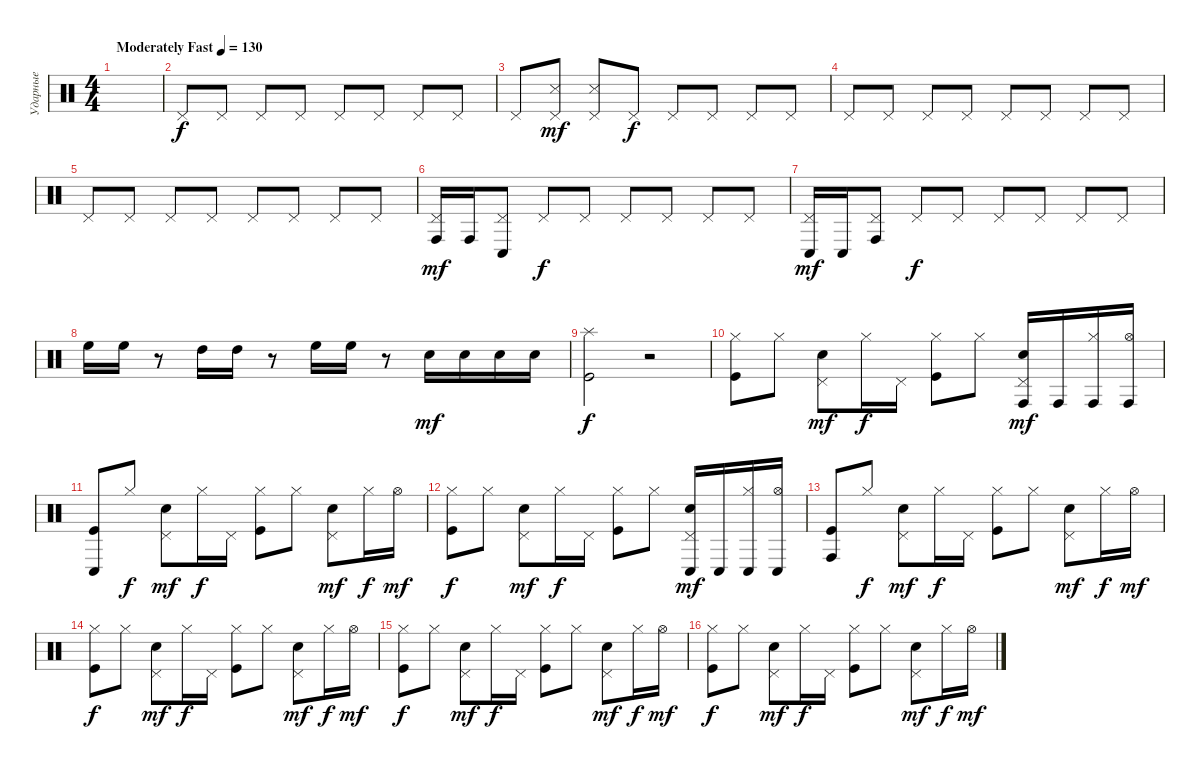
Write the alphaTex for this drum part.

\track ("Ударные" "Ударные") {instrument percussion}
\staff {score}
\articulation defaults
\ts (4 4)
\tempo (130 "Moderately Fast")
\clef neutral
\ks c
|
"Pedal Hi-Hat (hit)".8 "Pedal Hi-Hat (hit)".8 "Pedal Hi-Hat (hit)".8 "Pedal Hi-Hat (hit)".8 "Pedal Hi-Hat (hit)".8 "Pedal Hi-Hat (hit)".8 "Pedal Hi-Hat (hit)".8 "Pedal Hi-Hat (hit)".8 |
"Pedal Hi-Hat (hit)".8 ("Pedal Hi-Hat (hit)" "Snare (side stick) 3").8{dy mf} ("Pedal Hi-Hat (hit)" "Snare (side stick) 3").8 "Pedal Hi-Hat (hit)".8{dy f} "Pedal Hi-Hat (hit)".8 "Pedal Hi-Hat (hit)".8 "Pedal Hi-Hat (hit)".8 "Pedal Hi-Hat (hit)".8 |
"Pedal Hi-Hat (hit)".8 "Pedal Hi-Hat (hit)".8 "Pedal Hi-Hat (hit)".8 "Pedal Hi-Hat (hit)".8 "Pedal Hi-Hat (hit)".8 "Pedal Hi-Hat (hit)".8 "Pedal Hi-Hat (hit)".8 "Pedal Hi-Hat (hit)".8 |
"Pedal Hi-Hat (hit)".8 "Pedal Hi-Hat (hit)".8 "Pedal Hi-Hat (hit)".8 "Pedal Hi-Hat (hit)".8 "Pedal Hi-Hat (hit)".8 "Pedal Hi-Hat (hit)".8 "Pedal Hi-Hat (hit)".8 "Pedal Hi-Hat (hit)".8 |
("Pedal Hi-Hat (hit)" "Conga high (hit)").16{dy mf} "Conga high (hit)".16 ("Pedal Hi-Hat (hit)" "Conga low (hit)").8 "Pedal Hi-Hat (hit)".8{dy f} "Pedal Hi-Hat (hit)".8 "Pedal Hi-Hat (hit)".8 "Pedal Hi-Hat (hit)".8 "Pedal Hi-Hat (hit)".8 "Pedal Hi-Hat (hit)".8 |
("Pedal Hi-Hat (hit)" "Conga low (hit)").16{dy mf} "Conga low (hit)".16 ("Pedal Hi-Hat (hit)" "Conga high (hit)").8 "Pedal Hi-Hat (hit)".8{dy f} "Pedal Hi-Hat (hit)".8 "Pedal Hi-Hat (hit)".8 "Pedal Hi-Hat (hit)".8 "Pedal Hi-Hat (hit)".8 "Pedal Hi-Hat (hit)".8 |
"High Floor Tom (hit)".16 "High Floor Tom (hit)".16 r.8 "High Tom (hit)".16 "High Tom (hit)".16 r.8 "High Floor Tom (hit)".16 "High Floor Tom (hit)".16 r.8 "Electric Snare (hit)".16{dy mf} "Electric Snare (hit)".16 "Electric Snare (hit)".16 "Electric Snare (hit)".16 |
("Kick (hit)" "Splash (hit)").2{dy f} r.2 |
("Hi-Hat (closed)" "Kick (hit)").8 "Hi-Hat (closed)".8 ("Pedal Hi-Hat (hit)" "Metronome (bell)").8{dy mf} "Hi-Hat (closed)".16{dy f} "Pedal Hi-Hat (hit)".16 ("Hi-Hat (closed)" "Kick (hit)").8 "Hi-Hat (closed)".8 ("Pedal Hi-Hat (hit)" "Metronome (bell)" "Conga high (hit)").16{dy mf} "Conga high (hit)".16 ("Hi-Hat (closed)" "Conga high (hit)").16 ("Hi-Hat (open)" "Conga high (hit)").16 |
("Conga low (hit)" "Kick (hit)").8 "Hi-Hat (closed)".8{dy f} ("Pedal Hi-Hat (hit)" "Metronome (bell)").8{dy mf} "Hi-Hat (closed)".16{dy f} "Pedal Hi-Hat (hit)".16 ("Hi-Hat (closed)" "Kick (hit)").8 "Hi-Hat (closed)".8 ("Pedal Hi-Hat (hit)" "Metronome (bell)").8{dy mf} "Hi-Hat (closed)".16{dy f} "Hi-Hat (open)".16{dy mf} |
("Hi-Hat (closed)" "Kick (hit)").8{dy f} "Hi-Hat (closed)".8 ("Pedal Hi-Hat (hit)" "Metronome (bell)").8{dy mf} "Hi-Hat (closed)".16{dy f} "Pedal Hi-Hat (hit)".16 ("Hi-Hat (closed)" "Kick (hit)").8 "Hi-Hat (closed)".8 ("Pedal Hi-Hat (hit)" "Metronome (bell)" "Conga low (hit)").16{dy mf} "Conga low (hit)".16 ("Hi-Hat (closed)" "Conga low (hit)").16 ("Hi-Hat (open)" "Conga low (hit)").16 |
("Conga high (hit)" "Kick (hit)").8 "Hi-Hat (closed)".8{dy f} ("Pedal Hi-Hat (hit)" "Metronome (bell)").8{dy mf} "Hi-Hat (closed)".16{dy f} "Pedal Hi-Hat (hit)".16 ("Hi-Hat (closed)" "Kick (hit)").8 "Hi-Hat (closed)".8 ("Pedal Hi-Hat (hit)" "Metronome (bell)").8{dy mf} "Hi-Hat (closed)".16{dy f} "Hi-Hat (open)".16{dy mf} |
("Hi-Hat (closed)" "Kick (hit)").8{dy f} "Hi-Hat (closed)".8 ("Pedal Hi-Hat (hit)" "Metronome (bell)").8{dy mf} "Hi-Hat (closed)".16{dy f} "Pedal Hi-Hat (hit)".16 ("Hi-Hat (closed)" "Kick (hit)").8 "Hi-Hat (closed)".8 ("Pedal Hi-Hat (hit)" "Metronome (bell)").8{dy mf} "Hi-Hat (closed)".16{dy f} "Hi-Hat (open)".16{dy mf} |
("Hi-Hat (closed)" "Kick (hit)").8{dy f} "Hi-Hat (closed)".8 ("Pedal Hi-Hat (hit)" "Metronome (bell)").8{dy mf} "Hi-Hat (closed)".16{dy f} "Pedal Hi-Hat (hit)".16 ("Hi-Hat (closed)" "Kick (hit)").8 "Hi-Hat (closed)".8 ("Pedal Hi-Hat (hit)" "Metronome (bell)").8{dy mf} "Hi-Hat (closed)".16{dy f} "Hi-Hat (open)".16{dy mf} |
("Hi-Hat (closed)" "Kick (hit)").8{dy f} "Hi-Hat (closed)".8 ("Pedal Hi-Hat (hit)" "Metronome (bell)").8{dy mf} "Hi-Hat (closed)".16{dy f} "Pedal Hi-Hat (hit)".16 ("Hi-Hat (closed)" "Kick (hit)").8 "Hi-Hat (closed)".8 ("Pedal Hi-Hat (hit)" "Metronome (bell)").8{dy mf} "Hi-Hat (closed)".16{dy f} "Hi-Hat (open)".16{dy mf}
